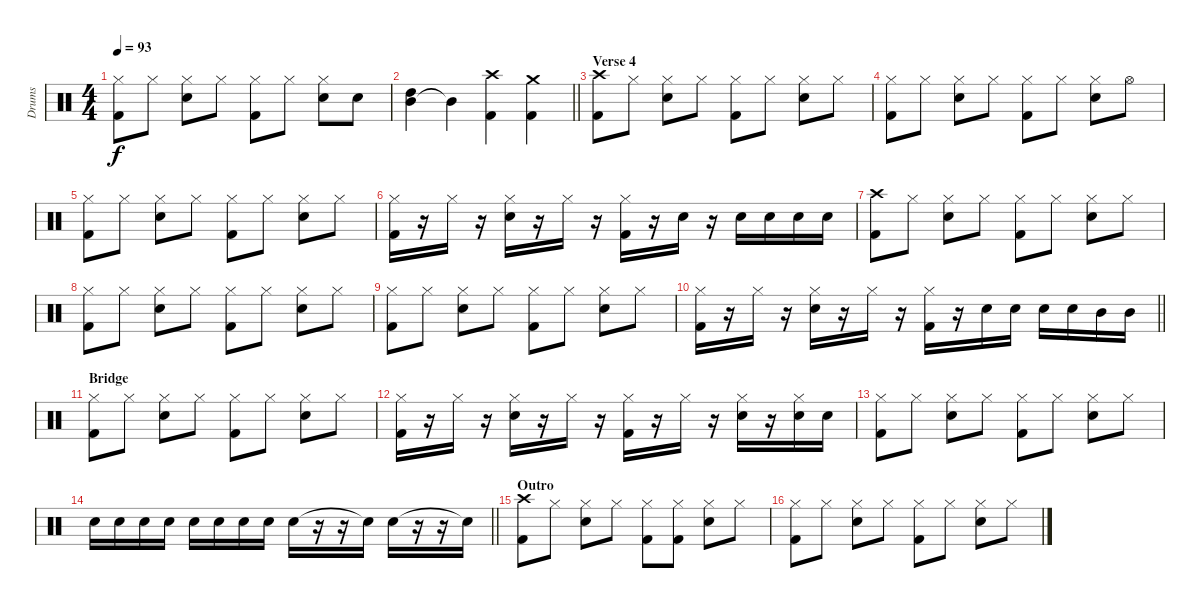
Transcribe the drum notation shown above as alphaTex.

\track ("Drums" "Drums") {instrument percussion}
\staff {score}
\articulation defaults
\ts (4 4)
\tempo 93
\clef neutral
\ks c
("Hi-Hat (closed)" "Kick (hit) 2").8{dy f} "Hi-Hat (closed)".8 ("Hi-Hat (closed)" "Snare (hit) 2").8 "Hi-Hat (closed)".8 ("Hi-Hat (closed)" "Kick (hit) 2").8 "Hi-Hat (closed)".8 ("Hi-Hat (closed)" "Snare (hit) 2").8 "Snare (hit) 2".8 |
\barLineRight lightlight
("Mid Tom (hit)" "High Tom (hit)").4 "Mid Tom (hit)"{t}.4 ("Crash high (hit)" "Kick (hit) 2").4 ("Crash medium (hit)" "Kick (hit) 2").4 |
\section ("" "Verse 4")
("Crash high (hit)" "Kick (hit) 2").8 "Hi-Hat (closed)".8 ("Hi-Hat (closed)" "Snare (hit) 2").8 "Hi-Hat (closed)".8 ("Hi-Hat (closed)" "Kick (hit) 2").8 "Hi-Hat (closed)".8 ("Hi-Hat (closed)" "Snare (hit) 2").8 "Hi-Hat (closed)".8 |
("Hi-Hat (closed)" "Kick (hit) 2").8 "Hi-Hat (closed)".8 ("Hi-Hat (closed)" "Snare (hit) 2").8 "Hi-Hat (closed)".8 ("Hi-Hat (closed)" "Kick (hit) 2").8 "Hi-Hat (closed)".8 ("Hi-Hat (closed)" "Snare (hit) 2").8 "Hi-Hat (open)".8 |
("Hi-Hat (closed)" "Kick (hit) 2").8 "Hi-Hat (closed)".8 ("Hi-Hat (closed)" "Snare (hit) 2").8 "Hi-Hat (closed)".8 ("Hi-Hat (closed)" "Kick (hit) 2").8 "Hi-Hat (closed)".8 ("Hi-Hat (closed)" "Snare (hit) 2").8 "Hi-Hat (closed)".8 |
("Hi-Hat (closed)" "Kick (hit) 2").16 r.16 "Hi-Hat (closed)".16 r.16 ("Hi-Hat (closed)" "Snare (hit) 2").16 r.16 "Hi-Hat (closed)".16 r.16 ("Hi-Hat (closed)" "Kick (hit) 2").16 r.16 "Snare (hit) 2".16 r.16 "Snare (hit) 2".16 "Snare (hit) 2".16 "Snare (hit) 2".16 "Snare (hit) 2".16 |
("Crash high (hit)" "Kick (hit) 2").8 "Hi-Hat (closed)".8 ("Hi-Hat (closed)" "Snare (hit) 2").8 "Hi-Hat (closed)".8 ("Hi-Hat (closed)" "Kick (hit) 2").8 "Hi-Hat (closed)".8 ("Hi-Hat (closed)" "Snare (hit) 2").8 "Hi-Hat (closed)".8 |
("Hi-Hat (closed)" "Kick (hit) 2").8 "Hi-Hat (closed)".8 ("Hi-Hat (closed)" "Snare (hit) 2").8 "Hi-Hat (closed)".8 ("Hi-Hat (closed)" "Kick (hit) 2").8 "Hi-Hat (closed)".8 ("Hi-Hat (closed)" "Snare (hit) 2").8 "Hi-Hat (closed)".8 |
("Hi-Hat (closed)" "Kick (hit) 2").8 "Hi-Hat (closed)".8 ("Hi-Hat (closed)" "Snare (hit) 2").8 "Hi-Hat (closed)".8 ("Hi-Hat (closed)" "Kick (hit) 2").8 "Hi-Hat (closed)".8 ("Hi-Hat (closed)" "Snare (hit) 2").8 "Hi-Hat (closed)".8 |
\barLineRight lightlight
("Hi-Hat (closed)" "Kick (hit) 2").16 r.16 "Hi-Hat (closed)".16 r.16 ("Hi-Hat (closed)" "Snare (hit) 2").16 r.16 "Hi-Hat (closed)".16 r.16 ("Hi-Hat (closed)" "Kick (hit) 2").16 r.16 "Snare (hit) 2".16 "Snare (hit) 2".16 "Snare (hit) 2".16 "Snare (hit) 2".16 "Mid Tom (hit)".16 "Mid Tom (hit)".16 |
\section ("" "Bridge")
("Hi-Hat (closed)" "Kick (hit) 2").8 "Hi-Hat (closed)".8 ("Hi-Hat (closed)" "Snare (hit) 2").8 "Hi-Hat (closed)".8 ("Hi-Hat (closed)" "Kick (hit) 2").8 "Hi-Hat (closed)".8 ("Hi-Hat (closed)" "Snare (hit) 2").8 "Hi-Hat (closed)".8 |
("Hi-Hat (closed)" "Kick (hit) 2").16 r.16 "Hi-Hat (closed)".16 r.16 ("Hi-Hat (closed)" "Snare (hit) 2").16 r.16 "Hi-Hat (closed)".16 r.16 ("Hi-Hat (closed)" "Kick (hit) 2").16 r.16 "Hi-Hat (closed)".16 r.16 ("Hi-Hat (closed)" "Snare (hit) 2").16 r.16 ("Hi-Hat (closed)" "Snare (hit) 2").16 "Snare (hit) 2".16 |
("Hi-Hat (closed)" "Kick (hit) 2").8 "Hi-Hat (closed)".8 ("Hi-Hat (closed)" "Snare (hit) 2").8 "Hi-Hat (closed)".8 ("Hi-Hat (closed)" "Kick (hit) 2").8 "Hi-Hat (closed)".8 ("Hi-Hat (closed)" "Snare (hit) 2").8 "Hi-Hat (closed)".8 |
\barLineRight lightlight "Snare (hit) 2".16 "Snare (hit) 2".16 "Snare (hit) 2".16 "Snare (hit) 2".16 "Snare (hit) 2".16 "Snare (hit) 2".16 "Snare (hit) 2".16 "Snare (hit) 2".16 "Snare (hit) 2".16
r.16 r.16 "Snare (hit) 2"{t}.16 "Snare (hit) 2".16 r.16 r.16 "Snare (hit) 2"{t}.16 |
\section ("" "Outro")
("Crash high (hit)" "Kick (hit) 2").8 "Hi-Hat (closed)".8 ("Hi-Hat (closed)" "Snare (hit) 2").8 "Hi-Hat (closed)".8 ("Hi-Hat (closed)" "Kick (hit) 2").8 ("Hi-Hat (closed)" "Kick (hit) 2").8 ("Hi-Hat (closed)" "Snare (hit) 2").8 "Hi-Hat (closed)".8 |
("Hi-Hat (closed)" "Kick (hit) 2").8 "Hi-Hat (closed)".8 ("Hi-Hat (closed)" "Snare (hit) 2").8 "Hi-Hat (closed)".8 ("Hi-Hat (closed)" "Kick (hit) 2").8 "Hi-Hat (closed)".8 ("Hi-Hat (closed)" "Snare (hit) 2").8 "Hi-Hat (closed)".8
